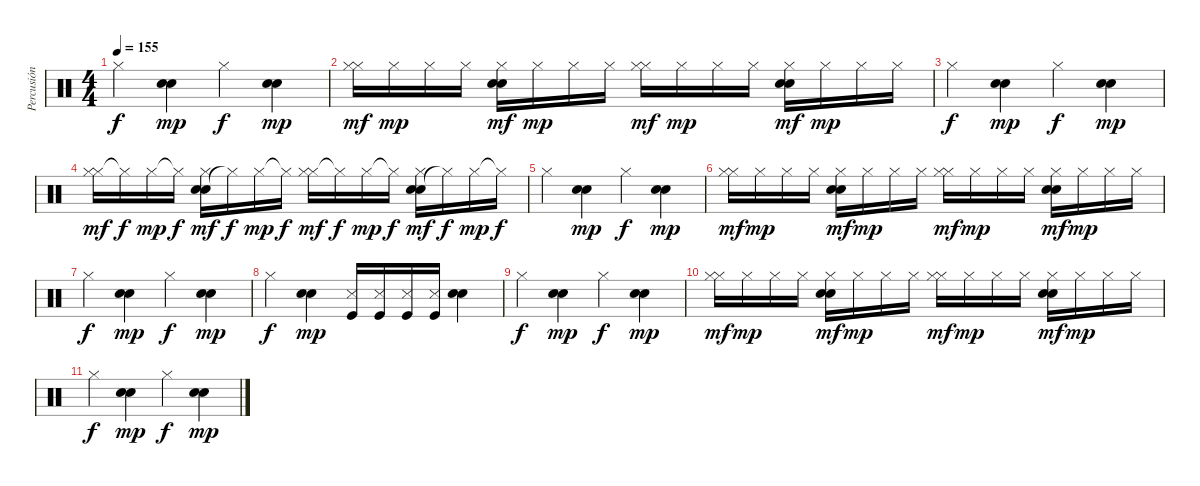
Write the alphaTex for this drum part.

\track ("Percusión" "Percusión") {instrument percussion}
\staff {score}
\articulation defaults
\ts (4 4)
\tempo 155
\clef neutral
\ks c "Hi-Hat (closed)".4{dy f}
("Electric Snare (hit)" "Snare (hit) 2").4{dy mp} "Hi-Hat (closed)".4{dy f} ("Electric Snare (hit)" "Snare (hit) 2").4{dy mp} |
("Hi-Hat (closed)" "Hi-Hat (closed)").16{dy mf} "Hi-Hat (closed)".16{dy mp} "Hi-Hat (closed)".16 "Hi-Hat (closed)".16 ("Electric Snare (hit)" "Snare (hit) 2" "Hi-Hat (closed)").16{dy mf} "Hi-Hat (closed)".16{dy mp} "Hi-Hat (closed)".16 "Hi-Hat (closed)".16 ("Hi-Hat (closed)" "Hi-Hat (closed)").16{dy mf} "Hi-Hat (closed)".16{dy mp} "Hi-Hat (closed)".16 "Hi-Hat (closed)".16 ("Electric Snare (hit)" "Snare (hit) 2" "Hi-Hat (closed)").16{dy mf} "Hi-Hat (closed)".16{dy mp} "Hi-Hat (closed)".16 "Hi-Hat (closed)".16 |
"Hi-Hat (closed)".4{dy f} ("Electric Snare (hit)" "Snare (hit) 2").4{dy mp} "Hi-Hat (closed)".4{dy f} ("Electric Snare (hit)" "Snare (hit) 2").4{dy mp} |
("Hi-Hat (closed)" "Hi-Hat (closed)").16{dy mf} "Hi-Hat (closed)"{t}.16{dy f} "Hi-Hat (closed)".16{dy mp} "Hi-Hat (closed)"{t}.16{dy f} ("Electric Snare (hit)" "Snare (hit) 2" "Hi-Hat (closed)").16{dy mf} "Hi-Hat (closed)"{t}.16{dy f} "Hi-Hat (closed)".16{dy mp} "Hi-Hat (closed)"{t}.16{dy f} ("Hi-Hat (closed)" "Hi-Hat (closed)").16{dy mf} "Hi-Hat (closed)"{t}.16{dy f} "Hi-Hat (closed)".16{dy mp} "Hi-Hat (closed)"{t}.16{dy f} ("Electric Snare (hit)" "Snare (hit) 2" "Hi-Hat (closed)").16{dy mf} "Hi-Hat (closed)"{t}.16{dy f} "Hi-Hat (closed)".16{dy mp} "Hi-Hat (closed)"{t}.16{dy f} |
"Hi-Hat (closed)".4 ("Electric Snare (hit)" "Snare (hit) 2").4{dy mp} "Hi-Hat (closed)".4{dy f} ("Electric Snare (hit)" "Snare (hit) 2").4{dy mp} |
("Hi-Hat (closed)" "Hi-Hat (closed)").16{dy mf} "Hi-Hat (closed)".16{dy mp} "Hi-Hat (closed)".16 "Hi-Hat (closed)".16 ("Electric Snare (hit)" "Snare (hit) 2" "Hi-Hat (closed)").16{dy mf} "Hi-Hat (closed)".16{dy mp} "Hi-Hat (closed)".16 "Hi-Hat (closed)".16 ("Hi-Hat (closed)" "Hi-Hat (closed)").16{dy mf} "Hi-Hat (closed)".16{dy mp} "Hi-Hat (closed)".16 "Hi-Hat (closed)".16 ("Electric Snare (hit)" "Snare (hit) 2" "Hi-Hat (closed)").16{dy mf} "Hi-Hat (closed)".16{dy mp} "Hi-Hat (closed)".16 "Hi-Hat (closed)".16 |
"Hi-Hat (closed)".4{dy f} ("Electric Snare (hit)" "Snare (hit) 2").4{dy mp} "Hi-Hat (closed)".4{dy f} ("Electric Snare (hit)" "Snare (hit) 2").4{dy mp} |
"Hi-Hat (closed)".4{dy f} ("Electric Snare (hit)" "Snare (hit) 2").4{dy mp} ("Kick (hit)" "Snare (side stick) 3").16 ("Kick (hit)" "Snare (side stick) 3").16 ("Kick (hit)" "Snare (side stick) 3").16 ("Kick (hit)" "Snare (side stick) 3").16 ("Electric Snare (hit)" "Snare (hit) 2").4 |
"Hi-Hat (closed)".4{dy f} ("Electric Snare (hit)" "Snare (hit) 2").4{dy mp} "Hi-Hat (closed)".4{dy f} ("Electric Snare (hit)" "Snare (hit) 2").4{dy mp} |
("Hi-Hat (closed)" "Hi-Hat (closed)").16{dy mf} "Hi-Hat (closed)".16{dy mp} "Hi-Hat (closed)".16 "Hi-Hat (closed)".16 ("Electric Snare (hit)" "Snare (hit) 2" "Hi-Hat (closed)").16{dy mf} "Hi-Hat (closed)".16{dy mp} "Hi-Hat (closed)".16 "Hi-Hat (closed)".16 ("Hi-Hat (closed)" "Hi-Hat (closed)").16{dy mf} "Hi-Hat (closed)".16{dy mp} "Hi-Hat (closed)".16 "Hi-Hat (closed)".16 ("Electric Snare (hit)" "Snare (hit) 2" "Hi-Hat (closed)").16{dy mf} "Hi-Hat (closed)".16{dy mp} "Hi-Hat (closed)".16 "Hi-Hat (closed)".16 |
"Hi-Hat (closed)".4{dy f} ("Electric Snare (hit)" "Snare (hit) 2").4{dy mp} "Hi-Hat (closed)".4{dy f} ("Electric Snare (hit)" "Snare (hit) 2").4{dy mp}
